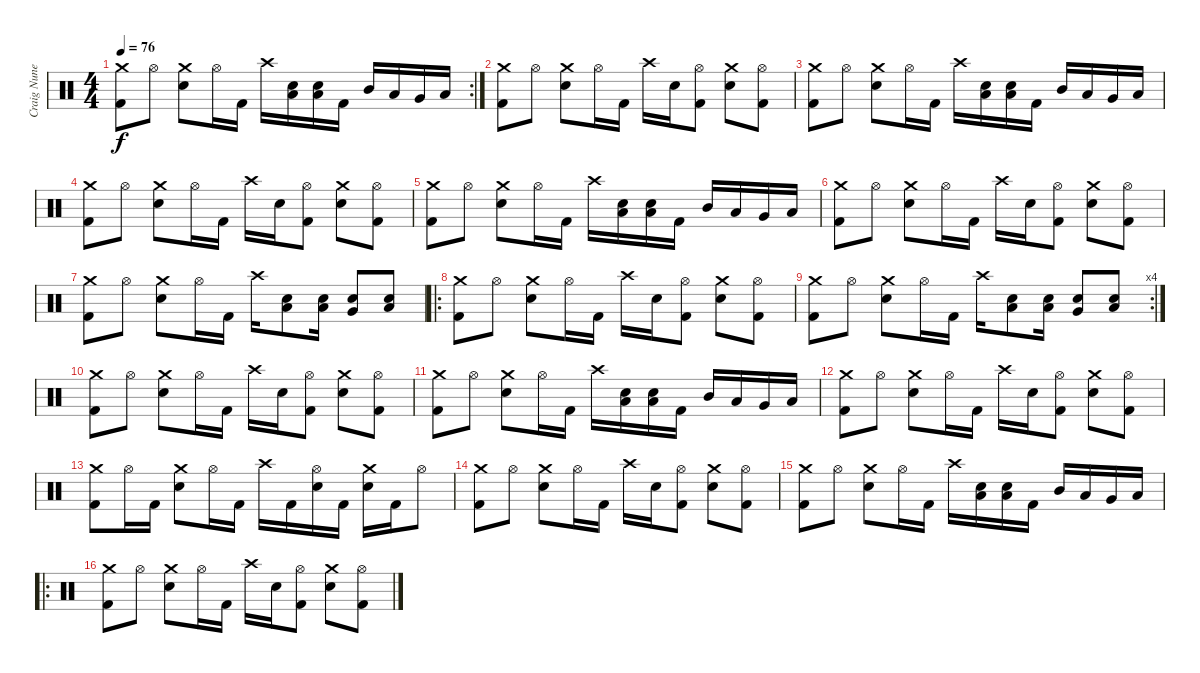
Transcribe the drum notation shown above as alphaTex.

\track ("Craig Nunenmacher" "Craig Nune") {instrument percussion}
\staff {score}
\articulation defaults
\rc 2
\ts (4 4)
\tempo 76
\clef neutral
\ks c
("Crash medium (hit)" "Kick (hit) 2").8{dy f} "Hi-Hat (open)".8 ("Crash medium (hit)" "Snare (hit) 2").8 "Hi-Hat (open)".16 "Kick (hit) 2".16 "Crash high (hit)".16 ("Snare (hit) 2" "Low Tom (hit)").16 ("Snare (hit) 2" "Low Tom (hit)").16 "Kick (hit) 2".16 "Mid Tom (hit)".16 "Low Tom (hit)".16 "Very Low Tom (hit)".16 "Low Floor Tom (hit)".16 |
("Crash medium (hit)" "Kick (hit) 2").8 "Hi-Hat (open)".8 ("Crash medium (hit)" "Snare (hit) 2").8 "Hi-Hat (open)".16 "Kick (hit) 2".16 "Crash high (hit)".16 "Snare (hit) 2".16 ("Hi-Hat (open)" "Kick (hit) 2").8 ("Crash medium (hit)" "Snare (hit) 2").8 ("Hi-Hat (open)" "Kick (hit) 2").8 |
("Crash medium (hit)" "Kick (hit) 2").8 "Hi-Hat (open)".8 ("Crash medium (hit)" "Snare (hit) 2").8 "Hi-Hat (open)".16 "Kick (hit) 2".16 "Crash high (hit)".16 ("Snare (hit) 2" "Low Tom (hit)").16 ("Snare (hit) 2" "Low Tom (hit)").16 "Kick (hit) 2".16 "Mid Tom (hit)".16 "Low Tom (hit)".16 "Very Low Tom (hit)".16 "Low Floor Tom (hit)".16 |
("Crash medium (hit)" "Kick (hit) 2").8 "Hi-Hat (open)".8 ("Crash medium (hit)" "Snare (hit) 2").8 "Hi-Hat (open)".16 "Kick (hit) 2".16 "Crash high (hit)".16 "Snare (hit) 2".16 ("Hi-Hat (open)" "Kick (hit) 2").8 ("Crash medium (hit)" "Snare (hit) 2").8 ("Hi-Hat (open)" "Kick (hit) 2").8 |
("Crash medium (hit)" "Kick (hit) 2").8 "Hi-Hat (open)".8 ("Crash medium (hit)" "Snare (hit) 2").8 "Hi-Hat (open)".16 "Kick (hit) 2".16 "Crash high (hit)".16 ("Snare (hit) 2" "Low Tom (hit)").16 ("Snare (hit) 2" "Low Tom (hit)").16 "Kick (hit) 2".16 "Mid Tom (hit)".16 "Low Tom (hit)".16 "Very Low Tom (hit)".16 "Low Floor Tom (hit)".16 |
("Crash medium (hit)" "Kick (hit) 2").8 "Hi-Hat (open)".8 ("Crash medium (hit)" "Snare (hit) 2").8 "Hi-Hat (open)".16 "Kick (hit) 2".16 "Crash high (hit)".16 "Snare (hit) 2".16 ("Hi-Hat (open)" "Kick (hit) 2").8 ("Crash medium (hit)" "Snare (hit) 2").8 ("Hi-Hat (open)" "Kick (hit) 2").8 |
("Crash medium (hit)" "Kick (hit) 2").8 "Hi-Hat (open)".8 ("Crash medium (hit)" "Snare (hit) 2").8 "Hi-Hat (open)".16 "Kick (hit) 2".16 "Crash high (hit)".16 ("Snare (hit) 2" "Low Tom (hit)").8 ("Snare (hit) 2" "Low Tom (hit)").16 ("Snare (hit) 2" "Very Low Tom (hit)").8 ("Snare (hit) 2" "Low Floor Tom (hit)").8 |
\ro
("Crash medium (hit)" "Kick (hit) 2").8 "Hi-Hat (open)".8 ("Crash medium (hit)" "Snare (hit) 2").8 "Hi-Hat (open)".16 "Kick (hit) 2".16 "Crash high (hit)".16 "Snare (hit) 2".16 ("Hi-Hat (open)" "Kick (hit) 2").8 ("Crash medium (hit)" "Snare (hit) 2").8 ("Hi-Hat (open)" "Kick (hit) 2").8 |
\rc 4
("Crash medium (hit)" "Kick (hit) 2").8 "Hi-Hat (open)".8 ("Crash medium (hit)" "Snare (hit) 2").8 "Hi-Hat (open)".16 "Kick (hit) 2".16 "Crash high (hit)".16 ("Snare (hit) 2" "Low Tom (hit)").8 ("Snare (hit) 2" "Low Tom (hit)").16 ("Snare (hit) 2" "Very Low Tom (hit)").8 ("Snare (hit) 2" "Low Floor Tom (hit)").8 |
("Crash medium (hit)" "Kick (hit) 2").8 "Hi-Hat (open)".8 ("Crash medium (hit)" "Snare (hit) 2").8 "Hi-Hat (open)".16 "Kick (hit) 2".16 "Crash high (hit)".16 "Snare (hit) 2".16 ("Hi-Hat (open)" "Kick (hit) 2").8 ("Crash medium (hit)" "Snare (hit) 2").8 ("Hi-Hat (open)" "Kick (hit) 2").8 |
("Crash medium (hit)" "Kick (hit) 2").8 "Hi-Hat (open)".8 ("Crash medium (hit)" "Snare (hit) 2").8 "Hi-Hat (open)".16 "Kick (hit) 2".16 "Crash high (hit)".16 ("Snare (hit) 2" "Low Tom (hit)").16 ("Snare (hit) 2" "Low Tom (hit)").16 "Kick (hit) 2".16 "Mid Tom (hit)".16 "Low Tom (hit)".16 "Very Low Tom (hit)".16 "Low Floor Tom (hit)".16 |
("Crash medium (hit)" "Kick (hit) 2").8 "Hi-Hat (open)".8 ("Crash medium (hit)" "Snare (hit) 2").8 "Hi-Hat (open)".16 "Kick (hit) 2".16 "Crash high (hit)".16 "Snare (hit) 2".16 ("Hi-Hat (open)" "Kick (hit) 2").8 ("Crash medium (hit)" "Snare (hit) 2").8 ("Hi-Hat (open)" "Kick (hit) 2").8 |
("Crash medium (hit)" "Kick (hit) 2").8 "Hi-Hat (open)".16 "Kick (hit) 2".16 ("Crash medium (hit)" "Snare (hit) 2").8 "Hi-Hat (open)".16 "Kick (hit) 2".16 "Crash high (hit)".16 "Kick (hit) 2".16 ("Hi-Hat (open)" "Snare (hit) 2").16 "Kick (hit) 2".16 ("Crash medium (hit)" "Snare (hit) 2").16 "Kick (hit) 2".16 "Hi-Hat (open)".8 |
("Crash medium (hit)" "Kick (hit) 2").8 "Hi-Hat (open)".8 ("Crash medium (hit)" "Snare (hit) 2").8 "Hi-Hat (open)".16 "Kick (hit) 2".16 "Crash high (hit)".16 "Snare (hit) 2".16 ("Hi-Hat (open)" "Kick (hit) 2").8 ("Crash medium (hit)" "Snare (hit) 2").8 ("Hi-Hat (open)" "Kick (hit) 2").8 |
("Crash medium (hit)" "Kick (hit) 2").8 "Hi-Hat (open)".8 ("Crash medium (hit)" "Snare (hit) 2").8 "Hi-Hat (open)".16 "Kick (hit) 2".16 "Crash high (hit)".16 ("Snare (hit) 2" "Low Tom (hit)").16 ("Snare (hit) 2" "Low Tom (hit)").16 "Kick (hit) 2".16 "Mid Tom (hit)".16 "Low Tom (hit)".16 "Very Low Tom (hit)".16 "Low Floor Tom (hit)".16 |
\ro
("Crash medium (hit)" "Kick (hit) 2").8 "Hi-Hat (open)".8 ("Crash medium (hit)" "Snare (hit) 2").8 "Hi-Hat (open)".16 "Kick (hit) 2".16 "Crash high (hit)".16 "Snare (hit) 2".16 ("Hi-Hat (open)" "Kick (hit) 2").8 ("Crash medium (hit)" "Snare (hit) 2").8 ("Hi-Hat (open)" "Kick (hit) 2").8
